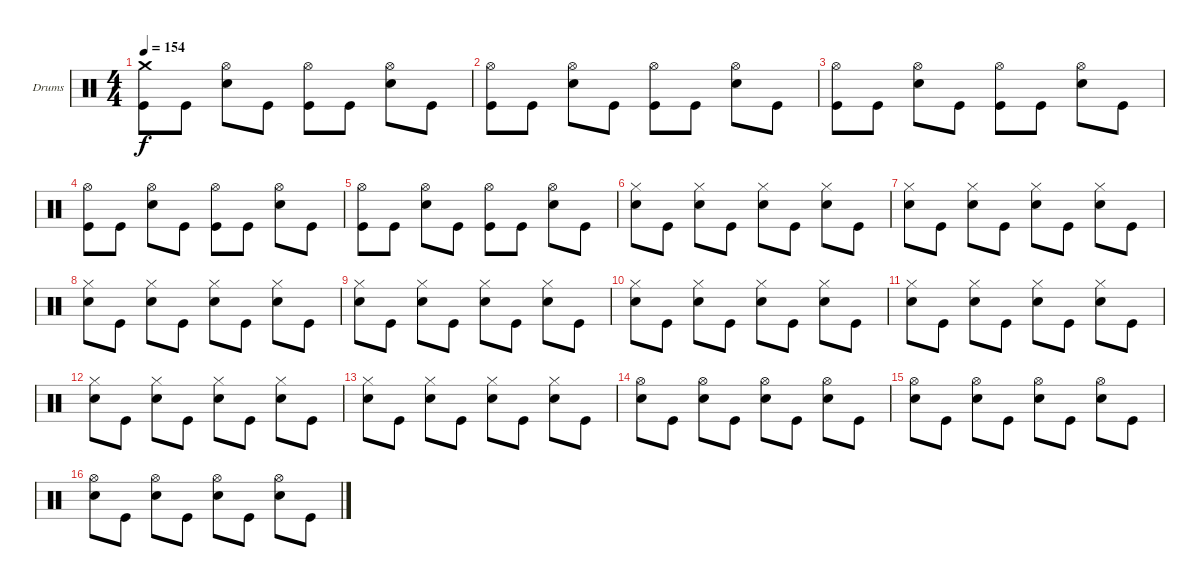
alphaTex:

\defaultSystemsLayout 4
\bracketExtendMode groupsimilarinstruments
\firstSystemTrackNameOrientation horizontal
\otherSystemsTrackNameOrientation horizontal
\track ("Drumkit" "Drums") {instrument percussion}
\staff {score}
\articulation defaults
\ts (4 4)
\tempo 154
\clef neutral
\ks c
("Crash medium (hit)" "Kick (hit)").8{dy f} "Kick (hit)".8 ("Hi-Hat (open)" "Snare (hit) 2").8 "Kick (hit)".8 ("Hi-Hat (open)" "Kick (hit)").8 "Kick (hit)".8 ("Hi-Hat (open)" "Snare (hit) 2").8 "Kick (hit)".8 |
("Hi-Hat (open)" "Kick (hit)").8 "Kick (hit)".8 ("Hi-Hat (open)" "Snare (hit) 2").8 "Kick (hit)".8 ("Hi-Hat (open)" "Kick (hit)").8 "Kick (hit)".8 ("Hi-Hat (open)" "Snare (hit) 2").8 "Kick (hit)".8 |
("Hi-Hat (open)" "Kick (hit)").8 "Kick (hit)".8 ("Hi-Hat (open)" "Snare (hit) 2").8 "Kick (hit)".8 ("Hi-Hat (open)" "Kick (hit)").8 "Kick (hit)".8 ("Hi-Hat (open)" "Snare (hit) 2").8 "Kick (hit)".8 |
("Hi-Hat (open)" "Kick (hit)").8 "Kick (hit)".8 ("Hi-Hat (open)" "Snare (hit) 2").8 "Kick (hit)".8 ("Hi-Hat (open)" "Kick (hit)").8 "Kick (hit)".8 ("Hi-Hat (open)" "Snare (hit) 2").8 "Kick (hit)".8 |
("Hi-Hat (open)" "Kick (hit)").8 "Kick (hit)".8 ("Hi-Hat (open)" "Snare (hit) 2").8 "Kick (hit)".8 ("Hi-Hat (open)" "Kick (hit)").8 "Kick (hit)".8 ("Hi-Hat (open)" "Snare (hit) 2").8 "Kick (hit)".8 |
("Hi-Hat (closed)" "Snare (hit) 2").8 "Kick (hit)".8 ("Hi-Hat (closed)" "Snare (hit) 2").8 "Kick (hit)".8 ("Hi-Hat (closed)" "Snare (hit) 2").8 "Kick (hit)".8 ("Hi-Hat (closed)" "Snare (hit) 2").8 "Kick (hit)".8 |
("Hi-Hat (closed)" "Snare (hit) 2").8 "Kick (hit)".8 ("Hi-Hat (closed)" "Snare (hit) 2").8 "Kick (hit)".8 ("Hi-Hat (closed)" "Snare (hit) 2").8 "Kick (hit)".8 ("Hi-Hat (closed)" "Snare (hit) 2").8 "Kick (hit)".8 |
("Hi-Hat (closed)" "Snare (hit) 2").8 "Kick (hit)".8 ("Hi-Hat (closed)" "Snare (hit) 2").8 "Kick (hit)".8 ("Hi-Hat (closed)" "Snare (hit) 2").8 "Kick (hit)".8 ("Hi-Hat (closed)" "Snare (hit) 2").8 "Kick (hit)".8 |
("Hi-Hat (closed)" "Snare (hit) 2").8 "Kick (hit)".8 ("Hi-Hat (closed)" "Snare (hit) 2").8 "Kick (hit)".8 ("Hi-Hat (closed)" "Snare (hit) 2").8 "Kick (hit)".8 ("Hi-Hat (closed)" "Snare (hit) 2").8 "Kick (hit)".8 |
("Hi-Hat (closed)" "Snare (hit) 2").8 "Kick (hit)".8 ("Hi-Hat (closed)" "Snare (hit) 2").8 "Kick (hit)".8 ("Hi-Hat (closed)" "Snare (hit) 2").8 "Kick (hit)".8 ("Hi-Hat (closed)" "Snare (hit) 2").8 "Kick (hit)".8 |
("Hi-Hat (closed)" "Snare (hit) 2").8 "Kick (hit)".8 ("Hi-Hat (closed)" "Snare (hit) 2").8 "Kick (hit)".8 ("Hi-Hat (closed)" "Snare (hit) 2").8 "Kick (hit)".8 ("Hi-Hat (closed)" "Snare (hit) 2").8 "Kick (hit)".8 |
("Hi-Hat (closed)" "Snare (hit) 2").8 "Kick (hit)".8 ("Hi-Hat (closed)" "Snare (hit) 2").8 "Kick (hit)".8 ("Hi-Hat (closed)" "Snare (hit) 2").8 "Kick (hit)".8 ("Hi-Hat (closed)" "Snare (hit) 2").8 "Kick (hit)".8 |
("Hi-Hat (closed)" "Snare (hit) 2").8 "Kick (hit)".8 ("Hi-Hat (closed)" "Snare (hit) 2").8 "Kick (hit)".8 ("Hi-Hat (closed)" "Snare (hit) 2").8 "Kick (hit)".8 ("Hi-Hat (closed)" "Snare (hit) 2").8 "Kick (hit)".8 |
("Hi-Hat (open)" "Snare (hit) 2").8 "Kick (hit)".8 ("Hi-Hat (open)" "Snare (hit) 2").8 "Kick (hit)".8 ("Hi-Hat (open)" "Snare (hit) 2").8 "Kick (hit)".8 ("Hi-Hat (open)" "Snare (hit) 2").8 "Kick (hit)".8 |
("Hi-Hat (open)" "Snare (hit) 2").8 "Kick (hit)".8 ("Hi-Hat (open)" "Snare (hit) 2").8 "Kick (hit)".8 ("Hi-Hat (open)" "Snare (hit) 2").8 "Kick (hit)".8 ("Hi-Hat (open)" "Snare (hit) 2").8 "Kick (hit)".8 |
("Hi-Hat (open)" "Snare (hit) 2").8 "Kick (hit)".8 ("Hi-Hat (open)" "Snare (hit) 2").8 "Kick (hit)".8 ("Hi-Hat (open)" "Snare (hit) 2").8 "Kick (hit)".8 ("Hi-Hat (open)" "Snare (hit) 2").8 "Kick (hit)".8
